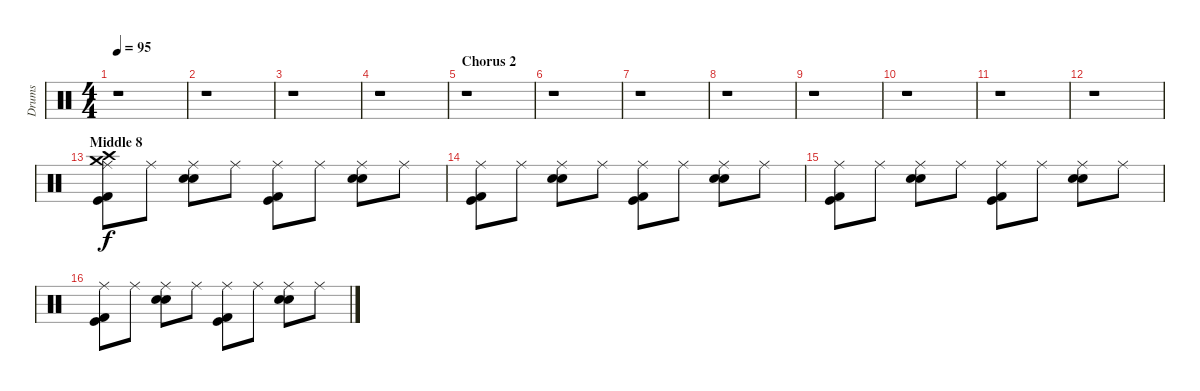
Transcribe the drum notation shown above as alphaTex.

\track ("Drums" "Drums") {instrument percussion}
\staff {score}
\articulation defaults
\ts (4 4)
\tempo 95
\clef neutral
\ks c
r.1{dy f} |
r.1 |
r.1 |
r.1 |
\section ("" "Chorus 2")
r.1 |
r.1 |
r.1 |
r.1 |
r.1 |
r.1 |
r.1 |
r.1 |
\section ("" "Middle 8")
("Ride (middle)" "Kick (hit) 2" "Kick (hit)" "Crash medium (hit)" "Crash high (hit)").8 "Ride (middle)".8 ("Ride (middle)" "Snare (hit) 2" "Electric Snare (hit)").8 "Ride (middle)".8 ("Ride (middle)" "Kick (hit) 2" "Kick (hit)").8 "Ride (middle)".8 ("Ride (middle)" "Snare (hit) 2" "Electric Snare (hit)").8 "Ride (middle)".8 |
("Ride (middle)" "Kick (hit) 2" "Kick (hit)").8 "Ride (middle)".8 ("Ride (middle)" "Snare (hit) 2" "Electric Snare (hit)").8 "Ride (middle)".8 ("Ride (middle)" "Kick (hit) 2" "Kick (hit)").8 "Ride (middle)".8 ("Ride (middle)" "Snare (hit) 2" "Electric Snare (hit)").8 "Ride (middle)".8 |
("Ride (middle)" "Kick (hit) 2" "Kick (hit)").8 "Ride (middle)".8 ("Ride (middle)" "Snare (hit) 2" "Electric Snare (hit)").8 "Ride (middle)".8 ("Ride (middle)" "Kick (hit) 2" "Kick (hit)").8 "Ride (middle)".8 ("Ride (middle)" "Snare (hit) 2" "Electric Snare (hit)").8 "Ride (middle)".8 |
("Ride (middle)" "Kick (hit) 2" "Kick (hit)").8 "Ride (middle)".8 ("Ride (middle)" "Snare (hit) 2" "Electric Snare (hit)").8 "Ride (middle)".8 ("Ride (middle)" "Kick (hit) 2" "Kick (hit)").8 "Ride (middle)".8 ("Ride (middle)" "Snare (hit) 2" "Electric Snare (hit)").8 "Ride (middle)".8
